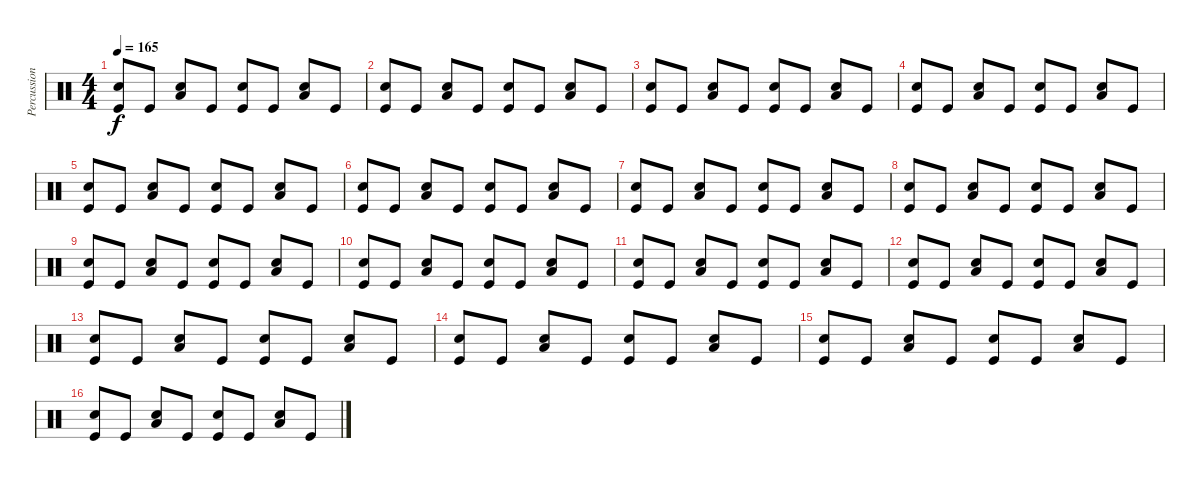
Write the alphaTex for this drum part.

\track ("Percussions" "Percussion") {instrument percussion}
\staff {score}
\articulation defaults
\ts (4 4)
\tempo 165
\clef neutral
\ks c
("Snare (hit) 2" "Kick (hit)").8{dy f} "Kick (hit)".8 ("Snare (hit) 2" "Low Floor Tom (hit)").8 "Kick (hit)".8 ("Snare (hit) 2" "Kick (hit)").8 "Kick (hit)".8 ("Snare (hit) 2" "Low Floor Tom (hit)").8 "Kick (hit)".8 |
("Snare (hit) 2" "Kick (hit)").8 "Kick (hit)".8 ("Snare (hit) 2" "Low Floor Tom (hit)").8 "Kick (hit)".8 ("Snare (hit) 2" "Kick (hit)").8 "Kick (hit)".8 ("Snare (hit) 2" "Low Floor Tom (hit)").8 "Kick (hit)".8 |
("Snare (hit) 2" "Kick (hit)").8 "Kick (hit)".8 ("Snare (hit) 2" "Low Floor Tom (hit)").8 "Kick (hit)".8 ("Snare (hit) 2" "Kick (hit)").8 "Kick (hit)".8 ("Snare (hit) 2" "Low Floor Tom (hit)").8 "Kick (hit)".8 |
("Snare (hit) 2" "Kick (hit)").8 "Kick (hit)".8 ("Snare (hit) 2" "Low Floor Tom (hit)").8 "Kick (hit)".8 ("Snare (hit) 2" "Kick (hit)").8 "Kick (hit)".8 ("Snare (hit) 2" "Low Floor Tom (hit)").8 "Kick (hit)".8 |
("Snare (hit) 2" "Kick (hit)").8 "Kick (hit)".8 ("Snare (hit) 2" "Low Floor Tom (hit)").8 "Kick (hit)".8 ("Snare (hit) 2" "Kick (hit)").8 "Kick (hit)".8 ("Snare (hit) 2" "Low Floor Tom (hit)").8 "Kick (hit)".8 |
("Snare (hit) 2" "Kick (hit)").8 "Kick (hit)".8 ("Snare (hit) 2" "Low Floor Tom (hit)").8 "Kick (hit)".8 ("Snare (hit) 2" "Kick (hit)").8 "Kick (hit)".8 ("Snare (hit) 2" "Low Floor Tom (hit)").8 "Kick (hit)".8 |
("Snare (hit) 2" "Kick (hit)").8 "Kick (hit)".8 ("Snare (hit) 2" "Low Floor Tom (hit)").8 "Kick (hit)".8 ("Snare (hit) 2" "Kick (hit)").8 "Kick (hit)".8 ("Snare (hit) 2" "Low Floor Tom (hit)").8 "Kick (hit)".8 |
("Snare (hit) 2" "Kick (hit)").8 "Kick (hit)".8 ("Snare (hit) 2" "Low Floor Tom (hit)").8 "Kick (hit)".8 ("Snare (hit) 2" "Kick (hit)").8 "Kick (hit)".8 ("Snare (hit) 2" "Low Floor Tom (hit)").8 "Kick (hit)".8 |
("Snare (hit) 2" "Kick (hit)").8 "Kick (hit)".8 ("Snare (hit) 2" "Low Floor Tom (hit)").8 "Kick (hit)".8 ("Snare (hit) 2" "Kick (hit)").8 "Kick (hit)".8 ("Snare (hit) 2" "Low Floor Tom (hit)").8 "Kick (hit)".8 |
("Snare (hit) 2" "Kick (hit)").8 "Kick (hit)".8 ("Snare (hit) 2" "Low Floor Tom (hit)").8 "Kick (hit)".8 ("Snare (hit) 2" "Kick (hit)").8 "Kick (hit)".8 ("Snare (hit) 2" "Low Floor Tom (hit)").8 "Kick (hit)".8 |
("Snare (hit) 2" "Kick (hit)").8 "Kick (hit)".8 ("Snare (hit) 2" "Low Floor Tom (hit)").8 "Kick (hit)".8 ("Snare (hit) 2" "Kick (hit)").8 "Kick (hit)".8 ("Snare (hit) 2" "Low Floor Tom (hit)").8 "Kick (hit)".8 |
("Snare (hit) 2" "Kick (hit)").8 "Kick (hit)".8 ("Snare (hit) 2" "Low Floor Tom (hit)").8 "Kick (hit)".8 ("Snare (hit) 2" "Kick (hit)").8 "Kick (hit)".8 ("Snare (hit) 2" "Low Floor Tom (hit)").8 "Kick (hit)".8 |
("Snare (hit) 2" "Kick (hit)").8 "Kick (hit)".8 ("Snare (hit) 2" "Low Floor Tom (hit)").8 "Kick (hit)".8 ("Snare (hit) 2" "Kick (hit)").8 "Kick (hit)".8 ("Snare (hit) 2" "Low Floor Tom (hit)").8 "Kick (hit)".8 |
("Snare (hit) 2" "Kick (hit)").8 "Kick (hit)".8 ("Snare (hit) 2" "Low Floor Tom (hit)").8 "Kick (hit)".8 ("Snare (hit) 2" "Kick (hit)").8 "Kick (hit)".8 ("Snare (hit) 2" "Low Floor Tom (hit)").8 "Kick (hit)".8 |
("Snare (hit) 2" "Kick (hit)").8 "Kick (hit)".8 ("Snare (hit) 2" "Low Floor Tom (hit)").8 "Kick (hit)".8 ("Snare (hit) 2" "Kick (hit)").8 "Kick (hit)".8 ("Snare (hit) 2" "Low Floor Tom (hit)").8 "Kick (hit)".8 |
("Snare (hit) 2" "Kick (hit)").8 "Kick (hit)".8 ("Snare (hit) 2" "Low Floor Tom (hit)").8 "Kick (hit)".8 ("Snare (hit) 2" "Kick (hit)").8 "Kick (hit)".8 ("Snare (hit) 2" "Low Floor Tom (hit)").8 "Kick (hit)".8
